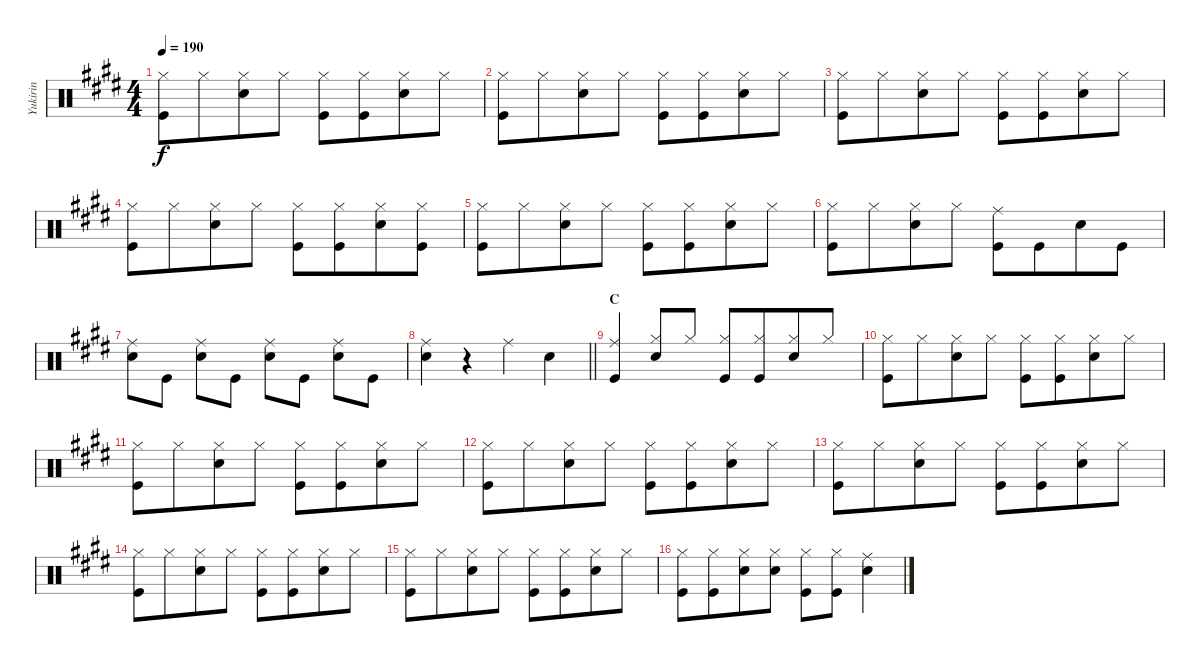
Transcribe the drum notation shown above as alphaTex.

\track ("Yukirin" "Yukirin") {mute instrument percussion}
\staff {score}
\articulation defaults
\ts (4 4)
\tempo 190
\clef neutral
\ks e
("Hi-Hat (closed)" "Kick (hit)").8{dy f} "Hi-Hat (closed)".8{beam merge} ("Hi-Hat (closed)" "Snare (hit) 2").8 "Hi-Hat (closed)".8 ("Hi-Hat (closed)" "Kick (hit)").8 ("Hi-Hat (closed)" "Kick (hit)").8{beam merge} ("Hi-Hat (closed)" "Snare (hit) 2").8 "Hi-Hat (closed)".8 |
("Hi-Hat (closed)" "Kick (hit)").8 "Hi-Hat (closed)".8{beam merge} ("Hi-Hat (closed)" "Snare (hit) 2").8 "Hi-Hat (closed)".8 ("Hi-Hat (closed)" "Kick (hit)").8 ("Hi-Hat (closed)" "Kick (hit)").8{beam merge} ("Hi-Hat (closed)" "Snare (hit) 2").8 "Hi-Hat (closed)".8 |
("Hi-Hat (closed)" "Kick (hit)").8 "Hi-Hat (closed)".8{beam merge} ("Hi-Hat (closed)" "Snare (hit) 2").8 "Hi-Hat (closed)".8 ("Hi-Hat (closed)" "Kick (hit)").8 ("Hi-Hat (closed)" "Kick (hit)").8{beam merge} ("Hi-Hat (closed)" "Snare (hit) 2").8 "Hi-Hat (closed)".8 |
("Hi-Hat (closed)" "Kick (hit)").8 "Hi-Hat (closed)".8{beam merge} ("Hi-Hat (closed)" "Snare (hit) 2").8 "Hi-Hat (closed)".8 ("Hi-Hat (closed)" "Kick (hit)").8 ("Hi-Hat (closed)" "Kick (hit)").8{beam merge} ("Hi-Hat (closed)" "Snare (hit) 2").8 ("Hi-Hat (closed)" "Kick (hit)").8 |
("Hi-Hat (closed)" "Kick (hit)").8 "Hi-Hat (closed)".8{beam merge} ("Hi-Hat (closed)" "Snare (hit) 2").8 "Hi-Hat (closed)".8 ("Hi-Hat (closed)" "Kick (hit)").8 ("Hi-Hat (closed)" "Kick (hit)").8{beam merge} ("Hi-Hat (closed)" "Snare (hit) 2").8 "Hi-Hat (closed)".8 |
("Hi-Hat (closed)" "Kick (hit)").8 "Hi-Hat (closed)".8{beam merge} ("Hi-Hat (closed)" "Snare (hit) 2").8 "Hi-Hat (closed)".8 ("Ride (middle)" "Kick (hit)").8 "Kick (hit)".8{beam merge} "Snare (hit) 2".8 "Kick (hit)".8 |
("Ride (middle)" "Snare (hit) 2").8 "Kick (hit)".8 ("Ride (middle)" "Snare (hit) 2").8 "Kick (hit)".8 ("Ride (middle)" "Snare (hit) 2").8 "Kick (hit)".8 ("Ride (middle)" "Snare (hit) 2").8 "Kick (hit)".8 |
\barLineRight lightlight
("Ride (middle)" "Snare (hit) 2").4 r.4 "Ride (middle)".4 "Snare (hit) 2".4 |
\section ("" "C")
("Ride (middle)" "Kick (hit)").4{beam Up} ("Hi-Hat (closed)" "Snare (hit) 2").8{beam Up} "Hi-Hat (closed)".8{beam Up} ("Hi-Hat (closed)" "Kick (hit)").8{beam Up} ("Hi-Hat (closed)" "Kick (hit)").8{beam Up beam merge} ("Hi-Hat (closed)" "Snare (hit) 2").8{beam Up} "Hi-Hat (closed)".8{beam Up} |
("Hi-Hat (closed)" "Kick (hit)").8 "Hi-Hat (closed)".8{beam merge} ("Hi-Hat (closed)" "Snare (hit) 2").8 "Hi-Hat (closed)".8 ("Hi-Hat (closed)" "Kick (hit)").8 ("Hi-Hat (closed)" "Kick (hit)").8{beam merge} ("Hi-Hat (closed)" "Snare (hit) 2").8 "Hi-Hat (closed)".8 |
("Hi-Hat (closed)" "Kick (hit)").8 "Hi-Hat (closed)".8{beam merge} ("Hi-Hat (closed)" "Snare (hit) 2").8 "Hi-Hat (closed)".8 ("Hi-Hat (closed)" "Kick (hit)").8 ("Hi-Hat (closed)" "Kick (hit)").8{beam merge} ("Hi-Hat (closed)" "Snare (hit) 2").8 "Hi-Hat (closed)".8 |
("Hi-Hat (closed)" "Kick (hit)").8 "Hi-Hat (closed)".8{beam merge} ("Hi-Hat (closed)" "Snare (hit) 2").8 "Hi-Hat (closed)".8 ("Hi-Hat (closed)" "Kick (hit)").8 ("Hi-Hat (closed)" "Kick (hit)").8{beam merge} ("Hi-Hat (closed)" "Snare (hit) 2").8 "Hi-Hat (closed)".8 |
("Hi-Hat (closed)" "Kick (hit)").8 "Hi-Hat (closed)".8{beam merge} ("Hi-Hat (closed)" "Snare (hit) 2").8 "Hi-Hat (closed)".8 ("Hi-Hat (closed)" "Kick (hit)").8 ("Hi-Hat (closed)" "Kick (hit)").8{beam merge} ("Hi-Hat (closed)" "Snare (hit) 2").8 "Hi-Hat (closed)".8 |
("Hi-Hat (closed)" "Kick (hit)").8 "Hi-Hat (closed)".8{beam merge} ("Hi-Hat (closed)" "Snare (hit) 2").8 "Hi-Hat (closed)".8 ("Hi-Hat (closed)" "Kick (hit)").8 ("Hi-Hat (closed)" "Kick (hit)").8{beam merge} ("Hi-Hat (closed)" "Snare (hit) 2").8 "Hi-Hat (closed)".8 |
("Hi-Hat (closed)" "Kick (hit)").8 "Hi-Hat (closed)".8{beam merge} ("Hi-Hat (closed)" "Snare (hit) 2").8 "Hi-Hat (closed)".8 ("Hi-Hat (closed)" "Kick (hit)").8 ("Hi-Hat (closed)" "Kick (hit)").8{beam merge} ("Hi-Hat (closed)" "Snare (hit) 2").8 "Hi-Hat (closed)".8 |
("Hi-Hat (closed)" "Kick (hit)").8 ("Hi-Hat (closed)" "Kick (hit)").8{beam merge} ("Hi-Hat (closed)" "Snare (hit) 2").8 ("Hi-Hat (closed)" "Snare (hit) 2").8 ("Hi-Hat (closed)" "Kick (hit)").8 ("Hi-Hat (closed)" "Kick (hit)").8{beam merge} ("Ride (middle)" "Snare (hit) 2").4
